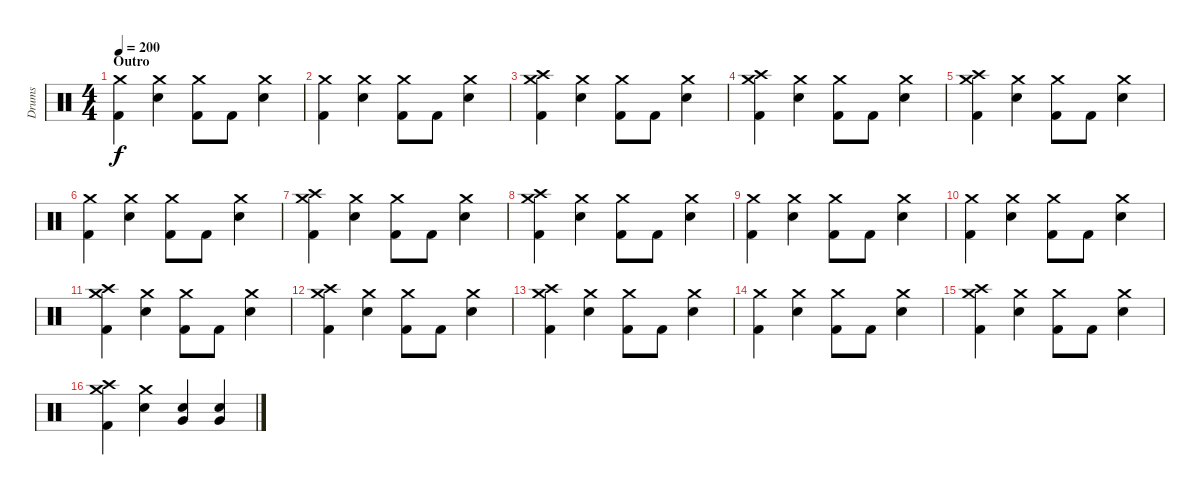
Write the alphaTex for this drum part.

\track ("Drums" "Drums") {instrument percussion}
\staff {score}
\articulation defaults
\ts (4 4)
\section ("" "Outro")
\tempo 200
\clef neutral
\ks c
("Crash medium (hit)" "Kick (hit) 2").4{dy f} ("Crash medium (hit)" "Electric Snare (hit)").4 ("Crash medium (hit)" "Kick (hit) 2").8 "Kick (hit) 2".8 ("Crash medium (hit)" "Electric Snare (hit)").4 |
("Crash medium (hit)" "Kick (hit) 2").4 ("Crash medium (hit)" "Electric Snare (hit)").4 ("Crash medium (hit)" "Kick (hit) 2").8 "Kick (hit) 2".8 ("Crash medium (hit)" "Electric Snare (hit)").4 |
("Crash medium (hit)" "Crash high (hit)" "Kick (hit) 2").4 ("Crash medium (hit)" "Electric Snare (hit)").4 ("Crash medium (hit)" "Kick (hit) 2").8 "Kick (hit) 2".8 ("Crash medium (hit)" "Electric Snare (hit)").4 |
("Crash medium (hit)" "Crash high (hit)" "Kick (hit) 2").4 ("Crash medium (hit)" "Electric Snare (hit)").4 ("Crash medium (hit)" "Kick (hit) 2").8 "Kick (hit) 2".8 ("Crash medium (hit)" "Electric Snare (hit)").4 |
("Crash medium (hit)" "Crash high (hit)" "Kick (hit) 2").4 ("Crash medium (hit)" "Electric Snare (hit)").4 ("Crash medium (hit)" "Kick (hit) 2").8 "Kick (hit) 2".8 ("Crash medium (hit)" "Electric Snare (hit)").4 |
("Crash medium (hit)" "Kick (hit) 2").4 ("Crash medium (hit)" "Electric Snare (hit)").4 ("Crash medium (hit)" "Kick (hit) 2").8 "Kick (hit) 2".8 ("Crash medium (hit)" "Electric Snare (hit)").4 |
("Crash medium (hit)" "Crash high (hit)" "Kick (hit) 2").4 ("Crash medium (hit)" "Electric Snare (hit)").4 ("Crash medium (hit)" "Kick (hit) 2").8 "Kick (hit) 2".8 ("Crash medium (hit)" "Electric Snare (hit)").4 |
("Crash medium (hit)" "Crash high (hit)" "Kick (hit) 2").4 ("Crash medium (hit)" "Electric Snare (hit)").4 ("Crash medium (hit)" "Kick (hit) 2").8 "Kick (hit) 2".8 ("Crash medium (hit)" "Electric Snare (hit)").4 |
("Crash medium (hit)" "Kick (hit) 2").4 ("Crash medium (hit)" "Electric Snare (hit)").4 ("Crash medium (hit)" "Kick (hit) 2").8 "Kick (hit) 2".8 ("Crash medium (hit)" "Electric Snare (hit)").4 |
("Crash medium (hit)" "Kick (hit) 2").4 ("Crash medium (hit)" "Electric Snare (hit)").4 ("Crash medium (hit)" "Kick (hit) 2").8 "Kick (hit) 2".8 ("Crash medium (hit)" "Electric Snare (hit)").4 |
("Crash medium (hit)" "Crash high (hit)" "Kick (hit) 2").4 ("Crash medium (hit)" "Electric Snare (hit)").4 ("Crash medium (hit)" "Kick (hit) 2").8 "Kick (hit) 2".8 ("Crash medium (hit)" "Electric Snare (hit)").4 |
("Crash medium (hit)" "Crash high (hit)" "Kick (hit) 2").4 ("Crash medium (hit)" "Electric Snare (hit)").4 ("Crash medium (hit)" "Kick (hit) 2").8 "Kick (hit) 2".8 ("Crash medium (hit)" "Electric Snare (hit)").4 |
("Crash medium (hit)" "Crash high (hit)" "Kick (hit) 2").4 ("Crash medium (hit)" "Electric Snare (hit)").4 ("Crash medium (hit)" "Kick (hit) 2").8 "Kick (hit) 2".8 ("Crash medium (hit)" "Electric Snare (hit)").4 |
("Crash medium (hit)" "Kick (hit) 2").4 ("Crash medium (hit)" "Electric Snare (hit)").4 ("Crash medium (hit)" "Kick (hit) 2").8 "Kick (hit) 2".8 ("Crash medium (hit)" "Electric Snare (hit)").4 |
("Crash medium (hit)" "Crash high (hit)" "Kick (hit) 2").4 ("Crash medium (hit)" "Electric Snare (hit)").4 ("Crash medium (hit)" "Kick (hit) 2").8 "Kick (hit) 2".8 ("Crash medium (hit)" "Electric Snare (hit)").4 |
("Crash medium (hit)" "Crash high (hit)" "Kick (hit) 2").4 ("Crash medium (hit)" "Electric Snare (hit)").4 ("Very Low Tom (hit)" "Electric Snare (hit)").4 ("Very Low Tom (hit)" "Electric Snare (hit)").4
